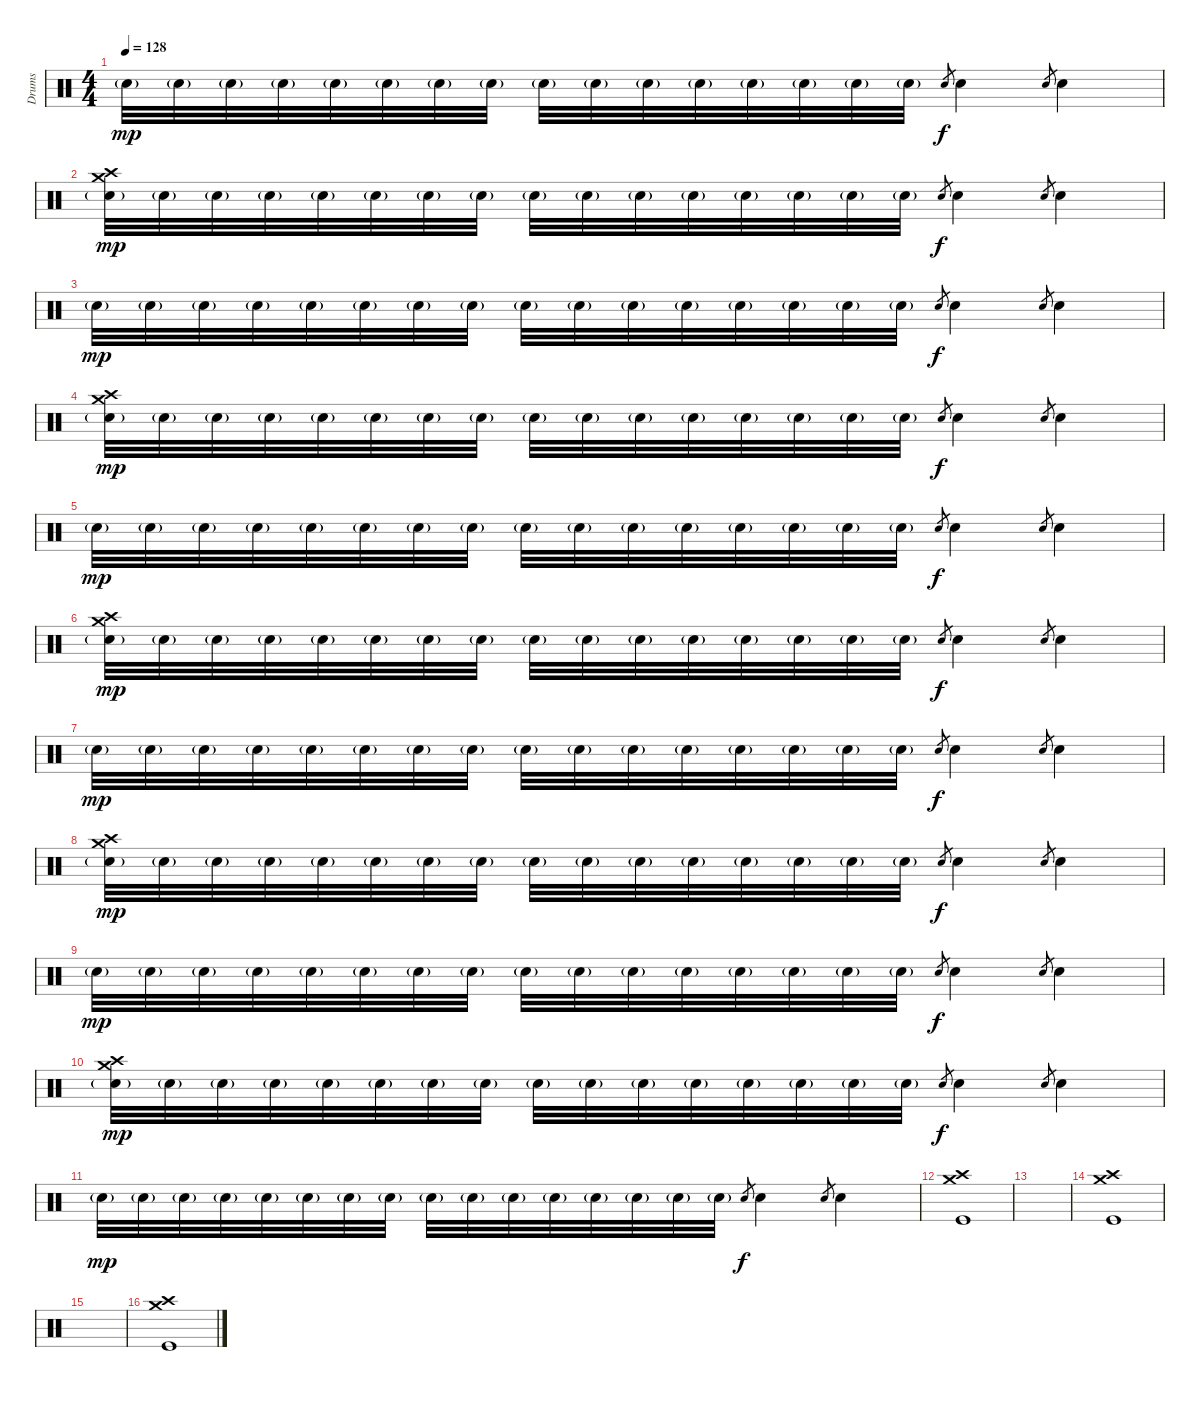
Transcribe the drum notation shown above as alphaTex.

\track ("Drums" "Drums") {instrument percussion}
\staff {score}
\articulation defaults
\ts (4 4)
\tempo 128
\clef neutral
\ks c "Snare (hit) 2"{g}.32{dy mp} "Snare (hit) 2"{g}.32 "Snare (hit) 2"{g}.32 "Snare (hit) 2"{g}.32 "Snare (hit) 2"{g}.32 "Snare (hit) 2"{g}.32 "Snare (hit) 2"{g}.32 "Snare (hit) 2"{g}.32 "Snare (hit) 2"{g}.32 "Snare (hit) 2"{g}.32 "Snare (hit) 2"{g}.32 "Snare (hit) 2"{g}.32 "Snare (hit) 2"{g}.32 "Snare (hit) 2"{g}.32 "Snare (hit) 2"{g}.32 "Snare (hit) 2"{g}.32 "Snare (hit) 2".8{gr dy f} "Snare (hit) 2".4 "Snare (hit) 2".8{gr} "Snare (hit) 2".4
|
("Crash medium (hit)" "Crash high (hit)" "Snare (hit) 2"{g}).32{dy mp} "Snare (hit) 2"{g}.32 "Snare (hit) 2"{g}.32 "Snare (hit) 2"{g}.32 "Snare (hit) 2"{g}.32 "Snare (hit) 2"{g}.32 "Snare (hit) 2"{g}.32 "Snare (hit) 2"{g}.32 "Snare (hit) 2"{g}.32 "Snare (hit) 2"{g}.32 "Snare (hit) 2"{g}.32 "Snare (hit) 2"{g}.32 "Snare (hit) 2"{g}.32 "Snare (hit) 2"{g}.32 "Snare (hit) 2"{g}.32 "Snare (hit) 2"{g}.32 "Snare (hit) 2".8{gr dy f} "Snare (hit) 2".4 "Snare (hit) 2".8{gr} "Snare (hit) 2".4 |
"Snare (hit) 2"{g}.32{dy mp} "Snare (hit) 2"{g}.32 "Snare (hit) 2"{g}.32 "Snare (hit) 2"{g}.32 "Snare (hit) 2"{g}.32 "Snare (hit) 2"{g}.32 "Snare (hit) 2"{g}.32 "Snare (hit) 2"{g}.32 "Snare (hit) 2"{g}.32 "Snare (hit) 2"{g}.32 "Snare (hit) 2"{g}.32 "Snare (hit) 2"{g}.32 "Snare (hit) 2"{g}.32 "Snare (hit) 2"{g}.32 "Snare (hit) 2"{g}.32 "Snare (hit) 2"{g}.32 "Snare (hit) 2".8{gr dy f} "Snare (hit) 2".4 "Snare (hit) 2".8{gr} "Snare (hit) 2".4 |
("Crash medium (hit)" "Crash high (hit)" "Snare (hit) 2"{g}).32{dy mp} "Snare (hit) 2"{g}.32 "Snare (hit) 2"{g}.32 "Snare (hit) 2"{g}.32 "Snare (hit) 2"{g}.32 "Snare (hit) 2"{g}.32 "Snare (hit) 2"{g}.32 "Snare (hit) 2"{g}.32 "Snare (hit) 2"{g}.32 "Snare (hit) 2"{g}.32 "Snare (hit) 2"{g}.32 "Snare (hit) 2"{g}.32 "Snare (hit) 2"{g}.32 "Snare (hit) 2"{g}.32 "Snare (hit) 2"{g}.32 "Snare (hit) 2"{g}.32 "Snare (hit) 2".8{gr dy f} "Snare (hit) 2".4 "Snare (hit) 2".8{gr} "Snare (hit) 2".4 |
"Snare (hit) 2"{g}.32{dy mp} "Snare (hit) 2"{g}.32 "Snare (hit) 2"{g}.32 "Snare (hit) 2"{g}.32 "Snare (hit) 2"{g}.32 "Snare (hit) 2"{g}.32 "Snare (hit) 2"{g}.32 "Snare (hit) 2"{g}.32 "Snare (hit) 2"{g}.32 "Snare (hit) 2"{g}.32 "Snare (hit) 2"{g}.32 "Snare (hit) 2"{g}.32 "Snare (hit) 2"{g}.32 "Snare (hit) 2"{g}.32 "Snare (hit) 2"{g}.32 "Snare (hit) 2"{g}.32 "Snare (hit) 2".8{gr dy f} "Snare (hit) 2".4 "Snare (hit) 2".8{gr} "Snare (hit) 2".4 |
("Crash medium (hit)" "Crash high (hit)" "Snare (hit) 2"{g}).32{dy mp} "Snare (hit) 2"{g}.32 "Snare (hit) 2"{g}.32 "Snare (hit) 2"{g}.32 "Snare (hit) 2"{g}.32 "Snare (hit) 2"{g}.32 "Snare (hit) 2"{g}.32 "Snare (hit) 2"{g}.32 "Snare (hit) 2"{g}.32 "Snare (hit) 2"{g}.32 "Snare (hit) 2"{g}.32 "Snare (hit) 2"{g}.32 "Snare (hit) 2"{g}.32 "Snare (hit) 2"{g}.32 "Snare (hit) 2"{g}.32 "Snare (hit) 2"{g}.32 "Snare (hit) 2".8{gr dy f} "Snare (hit) 2".4 "Snare (hit) 2".8{gr} "Snare (hit) 2".4 |
"Snare (hit) 2"{g}.32{dy mp} "Snare (hit) 2"{g}.32 "Snare (hit) 2"{g}.32 "Snare (hit) 2"{g}.32 "Snare (hit) 2"{g}.32 "Snare (hit) 2"{g}.32 "Snare (hit) 2"{g}.32 "Snare (hit) 2"{g}.32 "Snare (hit) 2"{g}.32 "Snare (hit) 2"{g}.32 "Snare (hit) 2"{g}.32 "Snare (hit) 2"{g}.32 "Snare (hit) 2"{g}.32 "Snare (hit) 2"{g}.32 "Snare (hit) 2"{g}.32 "Snare (hit) 2"{g}.32 "Snare (hit) 2".8{gr dy f} "Snare (hit) 2".4 "Snare (hit) 2".8{gr} "Snare (hit) 2".4 |
("Crash medium (hit)" "Crash high (hit)" "Snare (hit) 2"{g}).32{dy mp} "Snare (hit) 2"{g}.32 "Snare (hit) 2"{g}.32 "Snare (hit) 2"{g}.32 "Snare (hit) 2"{g}.32 "Snare (hit) 2"{g}.32 "Snare (hit) 2"{g}.32 "Snare (hit) 2"{g}.32 "Snare (hit) 2"{g}.32 "Snare (hit) 2"{g}.32 "Snare (hit) 2"{g}.32 "Snare (hit) 2"{g}.32 "Snare (hit) 2"{g}.32 "Snare (hit) 2"{g}.32 "Snare (hit) 2"{g}.32 "Snare (hit) 2"{g}.32 "Snare (hit) 2".8{gr dy f} "Snare (hit) 2".4 "Snare (hit) 2".8{gr} "Snare (hit) 2".4 |
"Snare (hit) 2"{g}.32{dy mp} "Snare (hit) 2"{g}.32 "Snare (hit) 2"{g}.32 "Snare (hit) 2"{g}.32 "Snare (hit) 2"{g}.32 "Snare (hit) 2"{g}.32 "Snare (hit) 2"{g}.32 "Snare (hit) 2"{g}.32 "Snare (hit) 2"{g}.32 "Snare (hit) 2"{g}.32 "Snare (hit) 2"{g}.32 "Snare (hit) 2"{g}.32 "Snare (hit) 2"{g}.32 "Snare (hit) 2"{g}.32 "Snare (hit) 2"{g}.32 "Snare (hit) 2"{g}.32 "Snare (hit) 2".8{gr dy f} "Snare (hit) 2".4 "Snare (hit) 2".8{gr} "Snare (hit) 2".4 |
("Crash medium (hit)" "Crash high (hit)" "Snare (hit) 2"{g}).32{dy mp} "Snare (hit) 2"{g}.32 "Snare (hit) 2"{g}.32 "Snare (hit) 2"{g}.32 "Snare (hit) 2"{g}.32 "Snare (hit) 2"{g}.32 "Snare (hit) 2"{g}.32 "Snare (hit) 2"{g}.32 "Snare (hit) 2"{g}.32 "Snare (hit) 2"{g}.32 "Snare (hit) 2"{g}.32 "Snare (hit) 2"{g}.32 "Snare (hit) 2"{g}.32 "Snare (hit) 2"{g}.32 "Snare (hit) 2"{g}.32 "Snare (hit) 2"{g}.32 "Snare (hit) 2".8{gr dy f} "Snare (hit) 2".4 "Snare (hit) 2".8{gr} "Snare (hit) 2".4 |
"Snare (hit) 2"{g}.32{dy mp} "Snare (hit) 2"{g}.32 "Snare (hit) 2"{g}.32 "Snare (hit) 2"{g}.32 "Snare (hit) 2"{g}.32 "Snare (hit) 2"{g}.32 "Snare (hit) 2"{g}.32 "Snare (hit) 2"{g}.32 "Snare (hit) 2"{g}.32 "Snare (hit) 2"{g}.32 "Snare (hit) 2"{g}.32 "Snare (hit) 2"{g}.32 "Snare (hit) 2"{g}.32 "Snare (hit) 2"{g}.32 "Snare (hit) 2"{g}.32 "Snare (hit) 2"{g}.32 "Snare (hit) 2".8{gr dy f} "Snare (hit) 2".4 "Snare (hit) 2".8{gr} "Snare (hit) 2".4 |
\section ("" "")
("Crash medium (hit)" "Crash high (hit)" "Kick (hit)").1 |
|
("Crash medium (hit)" "Crash high (hit)" "Kick (hit)").1 |
|
("Crash medium (hit)" "Crash high (hit)" "Kick (hit)").1
